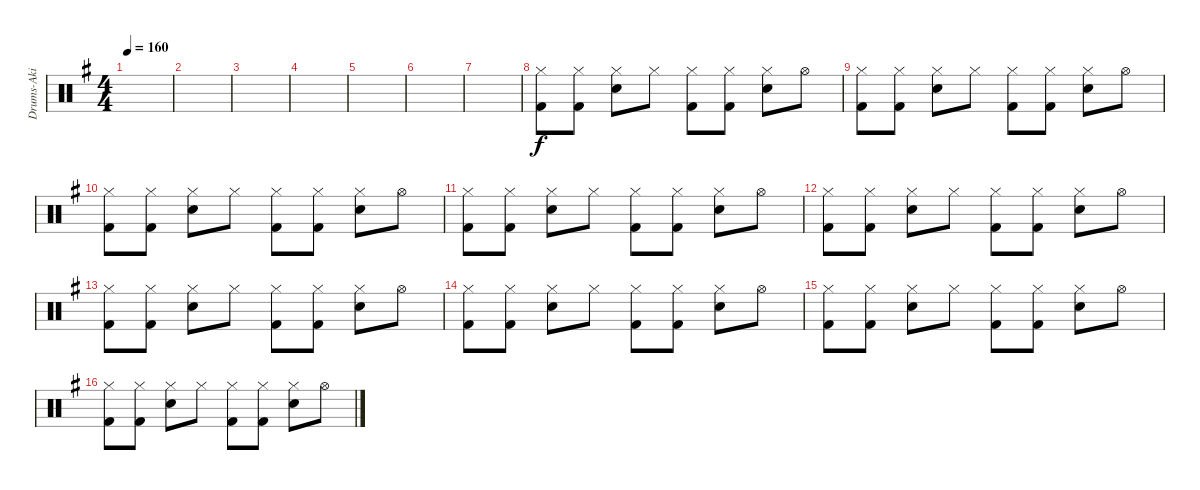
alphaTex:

\track ("Drums-Aki" "Drums-Aki") {instrument percussion}
\staff {score}
\articulation defaults
\ts (4 4)
\tempo 160
\clef neutral
\ks g
|
|
|
|
|
|
|
("Hi-Hat (closed)" "Kick (hit) 2").8 ("Hi-Hat (closed)" "Kick (hit) 2").8 ("Hi-Hat (closed)" "Electric Snare (hit)").8 "Hi-Hat (closed)".8 ("Hi-Hat (closed)" "Kick (hit) 2").8 ("Hi-Hat (closed)" "Kick (hit) 2").8 ("Hi-Hat (closed)" "Electric Snare (hit)").8 "Hi-Hat (open)".8 |
("Hi-Hat (closed)" "Kick (hit) 2").8 ("Hi-Hat (closed)" "Kick (hit) 2").8 ("Hi-Hat (closed)" "Electric Snare (hit)").8 "Hi-Hat (closed)".8 ("Hi-Hat (closed)" "Kick (hit) 2").8 ("Hi-Hat (closed)" "Kick (hit) 2").8 ("Hi-Hat (closed)" "Electric Snare (hit)").8 "Hi-Hat (open)".8 |
("Hi-Hat (closed)" "Kick (hit) 2").8 ("Hi-Hat (closed)" "Kick (hit) 2").8 ("Hi-Hat (closed)" "Electric Snare (hit)").8 "Hi-Hat (closed)".8 ("Hi-Hat (closed)" "Kick (hit) 2").8 ("Hi-Hat (closed)" "Kick (hit) 2").8 ("Hi-Hat (closed)" "Electric Snare (hit)").8 "Hi-Hat (open)".8 |
("Hi-Hat (closed)" "Kick (hit) 2").8 ("Hi-Hat (closed)" "Kick (hit) 2").8 ("Hi-Hat (closed)" "Electric Snare (hit)").8 "Hi-Hat (closed)".8 ("Hi-Hat (closed)" "Kick (hit) 2").8 ("Hi-Hat (closed)" "Kick (hit) 2").8 ("Hi-Hat (closed)" "Electric Snare (hit)").8 "Hi-Hat (open)".8 |
("Hi-Hat (closed)" "Kick (hit) 2").8 ("Hi-Hat (closed)" "Kick (hit) 2").8 ("Hi-Hat (closed)" "Electric Snare (hit)").8 "Hi-Hat (closed)".8 ("Hi-Hat (closed)" "Kick (hit) 2").8 ("Hi-Hat (closed)" "Kick (hit) 2").8 ("Hi-Hat (closed)" "Electric Snare (hit)").8 "Hi-Hat (open)".8 |
("Hi-Hat (closed)" "Kick (hit) 2").8 ("Hi-Hat (closed)" "Kick (hit) 2").8 ("Hi-Hat (closed)" "Electric Snare (hit)").8 "Hi-Hat (closed)".8 ("Hi-Hat (closed)" "Kick (hit) 2").8 ("Hi-Hat (closed)" "Kick (hit) 2").8 ("Hi-Hat (closed)" "Electric Snare (hit)").8 "Hi-Hat (open)".8 |
("Hi-Hat (closed)" "Kick (hit) 2").8 ("Hi-Hat (closed)" "Kick (hit) 2").8 ("Hi-Hat (closed)" "Electric Snare (hit)").8 "Hi-Hat (closed)".8 ("Hi-Hat (closed)" "Kick (hit) 2").8 ("Hi-Hat (closed)" "Kick (hit) 2").8 ("Hi-Hat (closed)" "Electric Snare (hit)").8 "Hi-Hat (open)".8 |
("Hi-Hat (closed)" "Kick (hit) 2").8 ("Hi-Hat (closed)" "Kick (hit) 2").8 ("Hi-Hat (closed)" "Electric Snare (hit)").8 "Hi-Hat (closed)".8 ("Hi-Hat (closed)" "Kick (hit) 2").8 ("Hi-Hat (closed)" "Kick (hit) 2").8 ("Hi-Hat (closed)" "Electric Snare (hit)").8 "Hi-Hat (open)".8 |
("Hi-Hat (closed)" "Kick (hit) 2").8 ("Hi-Hat (closed)" "Kick (hit) 2").8 ("Hi-Hat (closed)" "Electric Snare (hit)").8 "Hi-Hat (closed)".8 ("Hi-Hat (closed)" "Kick (hit) 2").8 ("Hi-Hat (closed)" "Kick (hit) 2").8 ("Hi-Hat (closed)" "Electric Snare (hit)").8 "Hi-Hat (open)".8
